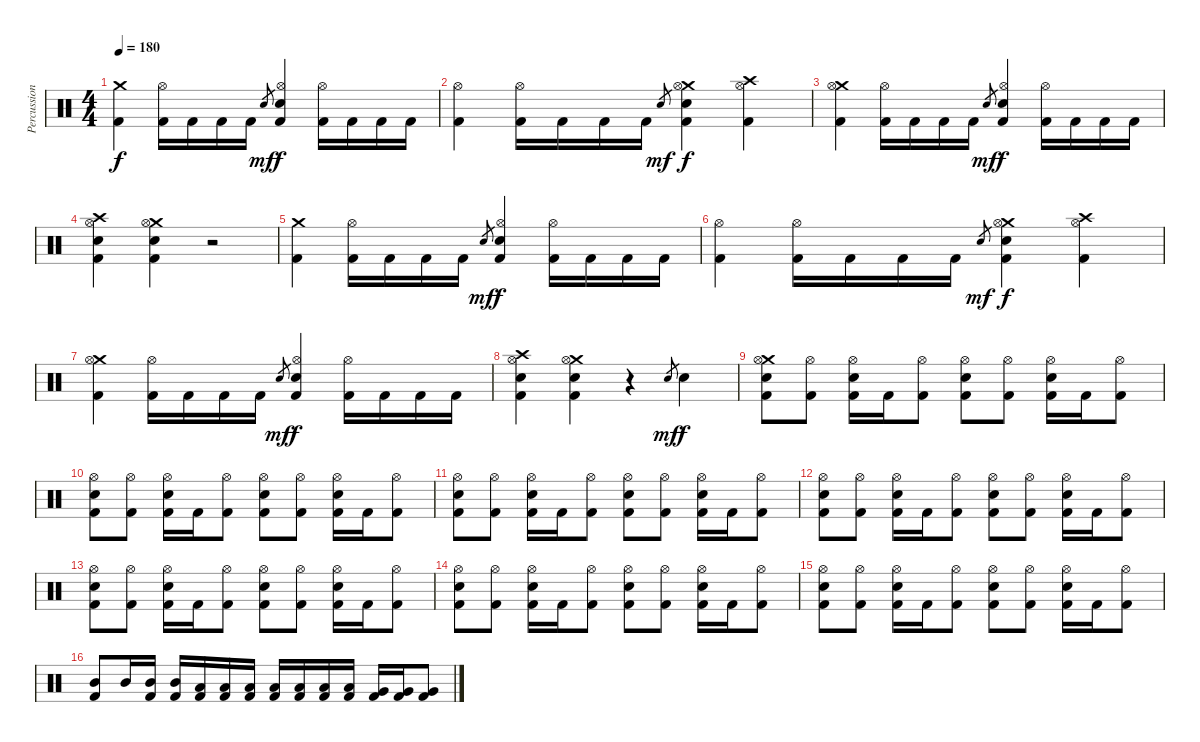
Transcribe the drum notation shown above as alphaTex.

\track ("Percussion" "Percussion") {instrument percussion}
\staff {score}
\articulation defaults
\ts (4 4)
\tempo 180
\clef neutral
\ks c
("Crash medium (hit)" "Kick (hit) 2").4{dy f} ("Hi-Hat (open)" "Kick (hit) 2").16 "Kick (hit) 2".16 "Kick (hit) 2".16 "Kick (hit) 2".16 "Snare (hit)".8{gr dy mf} ("Hi-Hat (open)" "Snare (hit) 2" "Kick (hit) 2").4{dy f} ("Hi-Hat (open)" "Kick (hit) 2").16 "Kick (hit) 2".16 "Kick (hit) 2".16 "Kick (hit) 2".16 |
("Hi-Hat (open)" "Kick (hit) 2").4 ("Hi-Hat (open)" "Kick (hit) 2").16 "Kick (hit) 2".16 "Kick (hit) 2".16 "Kick (hit) 2".16 "Snare (hit)".8{gr dy mf} ("Crash medium (hit)" "Hi-Hat (open)" "Snare (hit) 2" "Kick (hit) 2").4{dy f} ("Crash high (hit)" "Hi-Hat (open)" "Kick (hit) 2").4 |
("Crash medium (hit)" "Hi-Hat (open)" "Kick (hit) 2").4 ("Hi-Hat (open)" "Kick (hit) 2").16 "Kick (hit) 2".16 "Kick (hit) 2".16 "Kick (hit) 2".16 "Snare (hit)".8{gr dy mf} ("Hi-Hat (open)" "Snare (hit) 2" "Kick (hit) 2").4{dy f} ("Hi-Hat (open)" "Kick (hit) 2").16 "Kick (hit) 2".16 "Kick (hit) 2".16 "Kick (hit) 2".16 |
("Crash high (hit)" "Hi-Hat (open)" "Snare (hit) 2" "Kick (hit) 2").4 ("Crash medium (hit)" "Hi-Hat (open)" "Snare (hit) 2" "Kick (hit) 2").4 r.2 |
("Crash medium (hit)" "Kick (hit) 2").4 ("Hi-Hat (open)" "Kick (hit) 2").16 "Kick (hit) 2".16 "Kick (hit) 2".16 "Kick (hit) 2".16 "Snare (hit)".8{gr dy mf} ("Hi-Hat (open)" "Snare (hit) 2" "Kick (hit) 2").4{dy f} ("Hi-Hat (open)" "Kick (hit) 2").16 "Kick (hit) 2".16 "Kick (hit) 2".16 "Kick (hit) 2".16 |
("Hi-Hat (open)" "Kick (hit) 2").4 ("Hi-Hat (open)" "Kick (hit) 2").16 "Kick (hit) 2".16 "Kick (hit) 2".16 "Kick (hit) 2".16 "Snare (hit)".8{gr dy mf} ("Crash medium (hit)" "Hi-Hat (open)" "Snare (hit) 2" "Kick (hit) 2").4{dy f} ("Crash high (hit)" "Hi-Hat (open)" "Kick (hit) 2").4 |
("Crash medium (hit)" "Hi-Hat (open)" "Kick (hit) 2").4 ("Hi-Hat (open)" "Kick (hit) 2").16 "Kick (hit) 2".16 "Kick (hit) 2".16 "Kick (hit) 2".16 "Snare (hit)".8{gr dy mf} ("Hi-Hat (open)" "Snare (hit) 2" "Kick (hit) 2").4{dy f} ("Hi-Hat (open)" "Kick (hit) 2").16 "Kick (hit) 2".16 "Kick (hit) 2".16 "Kick (hit) 2".16 |
("Crash high (hit)" "Hi-Hat (open)" "Snare (hit) 2" "Kick (hit) 2").4 ("Crash medium (hit)" "Hi-Hat (open)" "Snare (hit) 2" "Kick (hit) 2").4 r.4 "Snare (hit)".8{gr dy mf} "Snare (hit) 2".4{dy f} |
("Crash medium (hit)" "Hi-Hat (open)" "Snare (hit) 2" "Kick (hit) 2").8 ("Hi-Hat (open)" "Kick (hit) 2").8 ("Hi-Hat (open)" "Snare (hit) 2" "Kick (hit) 2").16 "Kick (hit) 2".16 ("Hi-Hat (open)" "Kick (hit) 2").8 ("Hi-Hat (open)" "Snare (hit) 2" "Kick (hit) 2").8 ("Hi-Hat (open)" "Kick (hit) 2").8 ("Hi-Hat (open)" "Snare (hit) 2" "Kick (hit) 2").16 "Kick (hit) 2".16 ("Hi-Hat (open)" "Kick (hit) 2").8 |
("Hi-Hat (open)" "Snare (hit) 2" "Kick (hit) 2").8 ("Hi-Hat (open)" "Kick (hit) 2").8 ("Hi-Hat (open)" "Snare (hit) 2" "Kick (hit) 2").16 "Kick (hit) 2".16 ("Hi-Hat (open)" "Kick (hit) 2").8 ("Hi-Hat (open)" "Snare (hit) 2" "Kick (hit) 2").8 ("Hi-Hat (open)" "Kick (hit) 2").8 ("Hi-Hat (open)" "Snare (hit) 2" "Kick (hit) 2").16 "Kick (hit) 2".16 ("Hi-Hat (open)" "Kick (hit) 2").8 |
("Hi-Hat (open)" "Snare (hit) 2" "Kick (hit) 2").8 ("Hi-Hat (open)" "Kick (hit) 2").8 ("Hi-Hat (open)" "Snare (hit) 2" "Kick (hit) 2").16 "Kick (hit) 2".16 ("Hi-Hat (open)" "Kick (hit) 2").8 ("Hi-Hat (open)" "Snare (hit) 2" "Kick (hit) 2").8 ("Hi-Hat (open)" "Kick (hit) 2").8 ("Hi-Hat (open)" "Snare (hit) 2" "Kick (hit) 2").16 "Kick (hit) 2".16 ("Hi-Hat (open)" "Kick (hit) 2").8 |
("Hi-Hat (open)" "Snare (hit) 2" "Kick (hit) 2").8 ("Hi-Hat (open)" "Kick (hit) 2").8 ("Hi-Hat (open)" "Snare (hit) 2" "Kick (hit) 2").16 "Kick (hit) 2".16 ("Hi-Hat (open)" "Kick (hit) 2").8 ("Hi-Hat (open)" "Snare (hit) 2" "Kick (hit) 2").8 ("Hi-Hat (open)" "Kick (hit) 2").8 ("Hi-Hat (open)" "Snare (hit) 2" "Kick (hit) 2").16 "Kick (hit) 2".16 ("Hi-Hat (open)" "Kick (hit) 2").8 |
("Hi-Hat (open)" "Snare (hit) 2" "Kick (hit) 2").8 ("Hi-Hat (open)" "Kick (hit) 2").8 ("Hi-Hat (open)" "Snare (hit) 2" "Kick (hit) 2").16 "Kick (hit) 2".16 ("Hi-Hat (open)" "Kick (hit) 2").8 ("Hi-Hat (open)" "Snare (hit) 2" "Kick (hit) 2").8 ("Hi-Hat (open)" "Kick (hit) 2").8 ("Hi-Hat (open)" "Snare (hit) 2" "Kick (hit) 2").16 "Kick (hit) 2".16 ("Hi-Hat (open)" "Kick (hit) 2").8 |
("Hi-Hat (open)" "Snare (hit) 2" "Kick (hit) 2").8 ("Hi-Hat (open)" "Kick (hit) 2").8 ("Hi-Hat (open)" "Snare (hit) 2" "Kick (hit) 2").16 "Kick (hit) 2".16 ("Hi-Hat (open)" "Kick (hit) 2").8 ("Hi-Hat (open)" "Snare (hit) 2" "Kick (hit) 2").8 ("Hi-Hat (open)" "Kick (hit) 2").8 ("Hi-Hat (open)" "Snare (hit) 2" "Kick (hit) 2").16 "Kick (hit) 2".16 ("Hi-Hat (open)" "Kick (hit) 2").8 |
("Hi-Hat (open)" "Snare (hit) 2" "Kick (hit) 2").8 ("Hi-Hat (open)" "Kick (hit) 2").8 ("Hi-Hat (open)" "Snare (hit) 2" "Kick (hit) 2").16 "Kick (hit) 2".16 ("Hi-Hat (open)" "Kick (hit) 2").8 ("Hi-Hat (open)" "Snare (hit) 2" "Kick (hit) 2").8 ("Hi-Hat (open)" "Kick (hit) 2").8 ("Hi-Hat (open)" "Snare (hit) 2" "Kick (hit) 2").16 "Kick (hit) 2".16 ("Hi-Hat (open)" "Kick (hit) 2").8 |
("Mid Tom (hit)" "Kick (hit) 2").8 "Mid Tom (hit)".16 ("Mid Tom (hit)" "Kick (hit) 2").16 ("Mid Tom (hit)" "Kick (hit) 2").16 ("Low Tom (hit)" "Kick (hit) 2").16 ("Low Tom (hit)" "Kick (hit) 2").16 ("Low Tom (hit)" "Kick (hit) 2").16 ("Low Tom (hit)" "Kick (hit) 2").16 ("Low Tom (hit)" "Kick (hit) 2").16 ("Low Tom (hit)" "Kick (hit) 2").16 ("Low Tom (hit)" "Kick (hit) 2").16 ("Very Low Tom (hit)" "Kick (hit) 2").16 ("Very Low Tom (hit)" "Kick (hit) 2").16 ("Very Low Tom (hit)" "Kick (hit) 2").8
